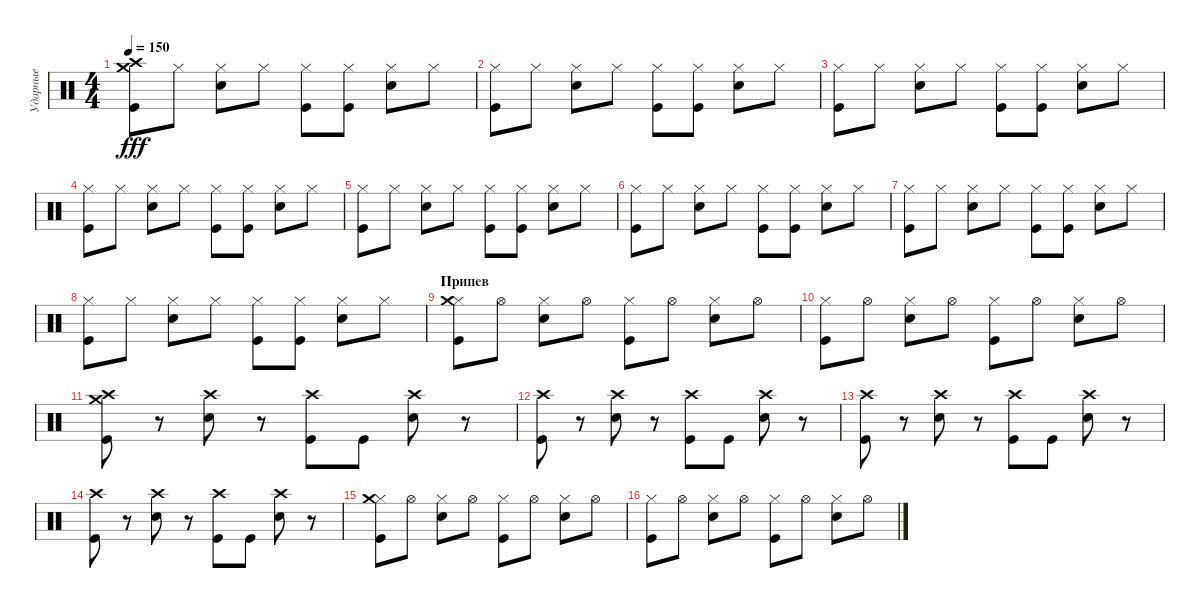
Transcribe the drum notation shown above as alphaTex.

\track ("Ударные" "Ударные") {instrument percussion}
\staff {score}
\articulation defaults
\ts (4 4)
\tempo 150
\clef neutral
\ks c
("Crash medium (hit)" "Crash high (hit)" "Kick (hit)").8{dy fff} "Hi-Hat (closed)".8 ("Hi-Hat (closed)" "Electric Snare (hit)").8 "Hi-Hat (closed)".8 ("Hi-Hat (closed)" "Kick (hit)").8 ("Hi-Hat (closed)" "Kick (hit)").8 ("Hi-Hat (closed)" "Electric Snare (hit)").8 "Hi-Hat (closed)".8 |
("Hi-Hat (closed)" "Kick (hit)").8 "Hi-Hat (closed)".8 ("Hi-Hat (closed)" "Electric Snare (hit)").8 "Hi-Hat (closed)".8 ("Hi-Hat (closed)" "Kick (hit)").8 ("Hi-Hat (closed)" "Kick (hit)").8 ("Hi-Hat (closed)" "Electric Snare (hit)").8 "Hi-Hat (closed)".8 |
("Hi-Hat (closed)" "Kick (hit)").8 "Hi-Hat (closed)".8 ("Hi-Hat (closed)" "Electric Snare (hit)").8 "Hi-Hat (closed)".8 ("Hi-Hat (closed)" "Kick (hit)").8 ("Hi-Hat (closed)" "Kick (hit)").8 ("Hi-Hat (closed)" "Electric Snare (hit)").8 "Hi-Hat (closed)".8 |
("Hi-Hat (closed)" "Kick (hit)").8 "Hi-Hat (closed)".8 ("Hi-Hat (closed)" "Electric Snare (hit)").8 "Hi-Hat (closed)".8 ("Hi-Hat (closed)" "Kick (hit)").8 ("Hi-Hat (closed)" "Kick (hit)").8 ("Hi-Hat (closed)" "Electric Snare (hit)").8 "Hi-Hat (closed)".8 |
("Hi-Hat (closed)" "Kick (hit)").8 "Hi-Hat (closed)".8 ("Hi-Hat (closed)" "Electric Snare (hit)").8 "Hi-Hat (closed)".8 ("Hi-Hat (closed)" "Kick (hit)").8 ("Hi-Hat (closed)" "Kick (hit)").8 ("Hi-Hat (closed)" "Electric Snare (hit)").8 "Hi-Hat (closed)".8 |
("Hi-Hat (closed)" "Kick (hit)").8 "Hi-Hat (closed)".8 ("Hi-Hat (closed)" "Electric Snare (hit)").8 "Hi-Hat (closed)".8 ("Hi-Hat (closed)" "Kick (hit)").8 ("Hi-Hat (closed)" "Kick (hit)").8 ("Hi-Hat (closed)" "Electric Snare (hit)").8 "Hi-Hat (closed)".8 |
("Hi-Hat (closed)" "Kick (hit)").8 "Hi-Hat (closed)".8 ("Hi-Hat (closed)" "Electric Snare (hit)").8 "Hi-Hat (closed)".8 ("Hi-Hat (closed)" "Kick (hit)").8 ("Hi-Hat (closed)" "Kick (hit)").8 ("Hi-Hat (closed)" "Electric Snare (hit)").8 "Hi-Hat (closed)".8 |
("Hi-Hat (closed)" "Kick (hit)").8 "Hi-Hat (closed)".8 ("Hi-Hat (closed)" "Electric Snare (hit)").8 "Hi-Hat (closed)".8 ("Hi-Hat (closed)" "Kick (hit)").8 ("Hi-Hat (closed)" "Kick (hit)").8 ("Hi-Hat (closed)" "Electric Snare (hit)").8 "Hi-Hat (closed)".8 |
\section ("" "Припев")
("Hi-Hat (closed)" "Kick (hit)" "Crash medium (hit)").8 "Hi-Hat (open)".8 ("Hi-Hat (closed)" "Electric Snare (hit)").8 "Hi-Hat (open)".8 ("Hi-Hat (closed)" "Kick (hit)").8 "Hi-Hat (open)".8 ("Hi-Hat (closed)" "Electric Snare (hit)").8 "Hi-Hat (open)".8 |
("Hi-Hat (closed)" "Kick (hit)").8 "Hi-Hat (open)".8 ("Hi-Hat (closed)" "Electric Snare (hit)").8 "Hi-Hat (open)".8 ("Hi-Hat (closed)" "Kick (hit)").8 "Hi-Hat (open)".8 ("Hi-Hat (closed)" "Electric Snare (hit)").8 "Hi-Hat (open)".8 |
("Crash high (hit)" "Kick (hit)" "Crash medium (hit)").8 r.8 ("Crash high (hit)" "Electric Snare (hit)").8 r.8 ("Crash high (hit)" "Kick (hit)").8 "Kick (hit)".8 ("Crash high (hit)" "Electric Snare (hit)").8 r.8 |
("Crash high (hit)" "Kick (hit)").8 r.8 ("Crash high (hit)" "Electric Snare (hit)").8 r.8 ("Crash high (hit)" "Kick (hit)").8 "Kick (hit)".8 ("Crash high (hit)" "Electric Snare (hit)").8 r.8 |
("Crash high (hit)" "Kick (hit)").8 r.8 ("Crash high (hit)" "Electric Snare (hit)").8 r.8 ("Crash high (hit)" "Kick (hit)").8 "Kick (hit)".8 ("Crash high (hit)" "Electric Snare (hit)").8 r.8 |
("Crash high (hit)" "Kick (hit)").8 r.8 ("Crash high (hit)" "Electric Snare (hit)").8 r.8 ("Crash high (hit)" "Kick (hit)").8 "Kick (hit)".8 ("Crash high (hit)" "Electric Snare (hit)").8 r.8 |
("Hi-Hat (closed)" "Kick (hit)" "Crash medium (hit)").8 "Hi-Hat (open)".8 ("Hi-Hat (closed)" "Electric Snare (hit)").8 "Hi-Hat (open)".8 ("Hi-Hat (closed)" "Kick (hit)").8 "Hi-Hat (open)".8 ("Hi-Hat (closed)" "Electric Snare (hit)").8 "Hi-Hat (open)".8 |
("Hi-Hat (closed)" "Kick (hit)").8 "Hi-Hat (open)".8 ("Hi-Hat (closed)" "Electric Snare (hit)").8 "Hi-Hat (open)".8 ("Hi-Hat (closed)" "Kick (hit)").8 "Hi-Hat (open)".8 ("Hi-Hat (closed)" "Electric Snare (hit)").8 "Hi-Hat (open)".8
